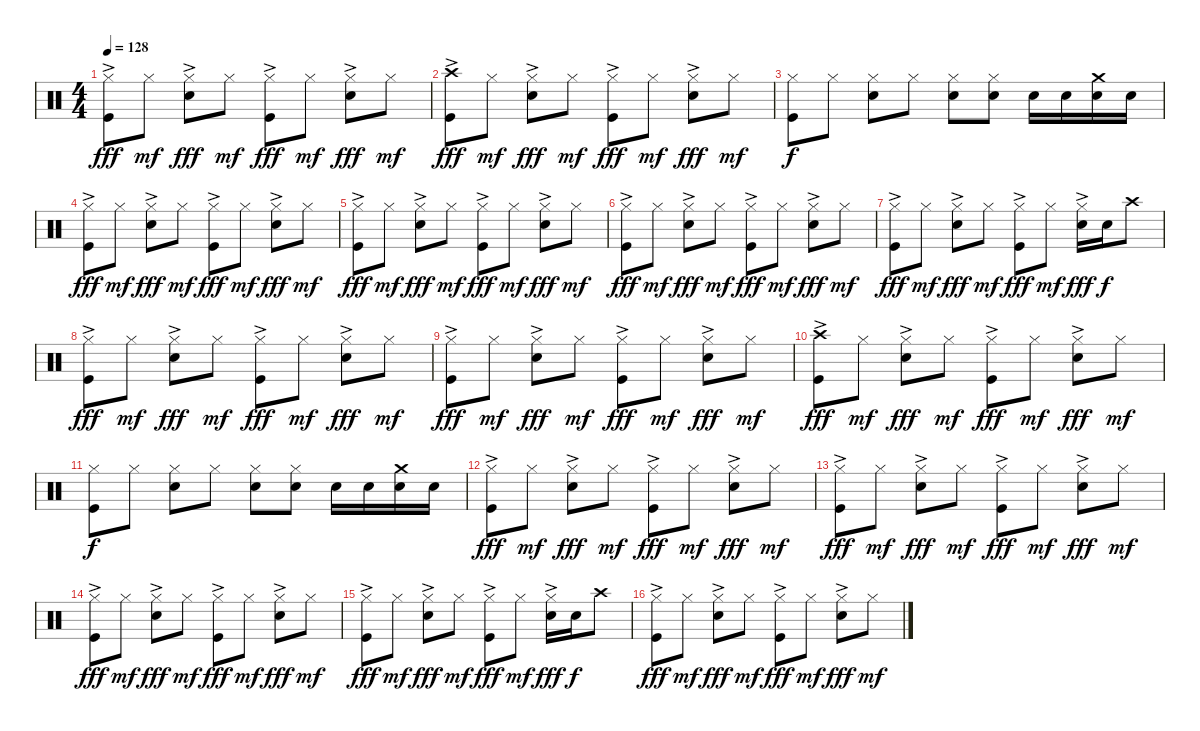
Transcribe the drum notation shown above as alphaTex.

\track "" {instrument percussion}
\staff {score}
\articulation defaults
\ts (4 4)
\tempo 128
\clef neutral
\ks c
("Hi-Hat (closed)"{ac} "Kick (hit)").8{dy fff} "Hi-Hat (closed)".8{dy mf} ("Hi-Hat (closed)"{ac} "Electric Snare (hit)").8{dy fff} "Hi-Hat (closed)".8{dy mf} ("Hi-Hat (closed)"{ac} "Kick (hit)").8{dy fff} "Hi-Hat (closed)".8{dy mf} ("Hi-Hat (closed)"{ac} "Electric Snare (hit)").8{dy fff} "Hi-Hat (closed)".8{dy mf} |
("Crash high (hit)"{ac} "Kick (hit)").8{dy fff} "Hi-Hat (closed)".8{dy mf} ("Hi-Hat (closed)"{ac} "Electric Snare (hit)").8{dy fff} "Hi-Hat (closed)".8{dy mf} ("Hi-Hat (closed)"{ac} "Kick (hit)").8{dy fff} "Hi-Hat (closed)".8{dy mf} ("Hi-Hat (closed)"{ac} "Electric Snare (hit)").8{dy fff} "Hi-Hat (closed)".8{dy mf} |
("Hi-Hat (closed)" "Kick (hit)").8{dy f} "Hi-Hat (closed)".8 ("Hi-Hat (closed)" "Electric Snare (hit)").8 "Hi-Hat (closed)".8 ("Hi-Hat (closed)" "Electric Snare (hit)").8 ("Hi-Hat (closed)" "Electric Snare (hit)").8 "Electric Snare (hit)".16 "Electric Snare (hit)".16 ("Crash medium (hit)" "Electric Snare (hit)").16 "Electric Snare (hit)".16 |
("Hi-Hat (closed)"{ac} "Kick (hit)").8{dy fff} "Hi-Hat (closed)".8{dy mf} ("Hi-Hat (closed)"{ac} "Electric Snare (hit)").8{dy fff} "Hi-Hat (closed)".8{dy mf} ("Hi-Hat (closed)"{ac} "Kick (hit)").8{dy fff} "Hi-Hat (closed)".8{dy mf} ("Hi-Hat (closed)"{ac} "Electric Snare (hit)").8{dy fff} "Hi-Hat (closed)".8{dy mf} |
("Hi-Hat (closed)"{ac} "Kick (hit)").8{dy fff} "Hi-Hat (closed)".8{dy mf} ("Hi-Hat (closed)"{ac} "Electric Snare (hit)").8{dy fff} "Hi-Hat (closed)".8{dy mf} ("Hi-Hat (closed)"{ac} "Kick (hit)").8{dy fff} "Hi-Hat (closed)".8{dy mf} ("Hi-Hat (closed)"{ac} "Electric Snare (hit)").8{dy fff} "Hi-Hat (closed)".8{dy mf} |
("Hi-Hat (closed)"{ac} "Kick (hit)").8{dy fff} "Hi-Hat (closed)".8{dy mf} ("Hi-Hat (closed)"{ac} "Electric Snare (hit)").8{dy fff} "Hi-Hat (closed)".8{dy mf} ("Hi-Hat (closed)"{ac} "Kick (hit)").8{dy fff} "Hi-Hat (closed)".8{dy mf} ("Hi-Hat (closed)"{ac} "Electric Snare (hit)").8{dy fff} "Hi-Hat (closed)".8{dy mf} |
("Hi-Hat (closed)"{ac} "Kick (hit)").8{dy fff} "Hi-Hat (closed)".8{dy mf} ("Hi-Hat (closed)"{ac} "Electric Snare (hit)").8{dy fff} "Hi-Hat (closed)".8{dy mf} ("Hi-Hat (closed)"{ac} "Kick (hit)").8{dy fff} "Hi-Hat (closed)".8{dy mf} ("Hi-Hat (closed)"{ac} "Electric Snare (hit)").16{dy fff} "Electric Snare (hit)".16{dy f} "Crash high (hit)".8 |
("Hi-Hat (closed)"{ac} "Kick (hit)").8{dy fff} "Hi-Hat (closed)".8{dy mf} ("Hi-Hat (closed)"{ac} "Electric Snare (hit)").8{dy fff} "Hi-Hat (closed)".8{dy mf} ("Hi-Hat (closed)"{ac} "Kick (hit)").8{dy fff} "Hi-Hat (closed)".8{dy mf} ("Hi-Hat (closed)"{ac} "Electric Snare (hit)").8{dy fff} "Hi-Hat (closed)".8{dy mf} |
("Hi-Hat (closed)"{ac} "Kick (hit)").8{dy fff} "Hi-Hat (closed)".8{dy mf} ("Hi-Hat (closed)"{ac} "Electric Snare (hit)").8{dy fff} "Hi-Hat (closed)".8{dy mf} ("Hi-Hat (closed)"{ac} "Kick (hit)").8{dy fff} "Hi-Hat (closed)".8{dy mf} ("Hi-Hat (closed)"{ac} "Electric Snare (hit)").8{dy fff} "Hi-Hat (closed)".8{dy mf} |
("Crash high (hit)"{ac} "Kick (hit)").8{dy fff} "Hi-Hat (closed)".8{dy mf} ("Hi-Hat (closed)"{ac} "Electric Snare (hit)").8{dy fff} "Hi-Hat (closed)".8{dy mf} ("Hi-Hat (closed)"{ac} "Kick (hit)").8{dy fff} "Hi-Hat (closed)".8{dy mf} ("Hi-Hat (closed)"{ac} "Electric Snare (hit)").8{dy fff} "Hi-Hat (closed)".8{dy mf} |
("Hi-Hat (closed)" "Kick (hit)").8{dy f} "Hi-Hat (closed)".8 ("Hi-Hat (closed)" "Electric Snare (hit)").8 "Hi-Hat (closed)".8 ("Hi-Hat (closed)" "Electric Snare (hit)").8 ("Hi-Hat (closed)" "Electric Snare (hit)").8 "Electric Snare (hit)".16 "Electric Snare (hit)".16 ("Crash medium (hit)" "Electric Snare (hit)").16 "Electric Snare (hit)".16 |
("Hi-Hat (closed)"{ac} "Kick (hit)").8{dy fff} "Hi-Hat (closed)".8{dy mf} ("Hi-Hat (closed)"{ac} "Electric Snare (hit)").8{dy fff} "Hi-Hat (closed)".8{dy mf} ("Hi-Hat (closed)"{ac} "Kick (hit)").8{dy fff} "Hi-Hat (closed)".8{dy mf} ("Hi-Hat (closed)"{ac} "Electric Snare (hit)").8{dy fff} "Hi-Hat (closed)".8{dy mf} |
("Hi-Hat (closed)"{ac} "Kick (hit)").8{dy fff} "Hi-Hat (closed)".8{dy mf} ("Hi-Hat (closed)"{ac} "Electric Snare (hit)").8{dy fff} "Hi-Hat (closed)".8{dy mf} ("Hi-Hat (closed)"{ac} "Kick (hit)").8{dy fff} "Hi-Hat (closed)".8{dy mf} ("Hi-Hat (closed)"{ac} "Electric Snare (hit)").8{dy fff} "Hi-Hat (closed)".8{dy mf} |
("Hi-Hat (closed)"{ac} "Kick (hit)").8{dy fff} "Hi-Hat (closed)".8{dy mf} ("Hi-Hat (closed)"{ac} "Electric Snare (hit)").8{dy fff} "Hi-Hat (closed)".8{dy mf} ("Hi-Hat (closed)"{ac} "Kick (hit)").8{dy fff} "Hi-Hat (closed)".8{dy mf} ("Hi-Hat (closed)"{ac} "Electric Snare (hit)").8{dy fff} "Hi-Hat (closed)".8{dy mf} |
("Hi-Hat (closed)"{ac} "Kick (hit)").8{dy fff} "Hi-Hat (closed)".8{dy mf} ("Hi-Hat (closed)"{ac} "Electric Snare (hit)").8{dy fff} "Hi-Hat (closed)".8{dy mf} ("Hi-Hat (closed)"{ac} "Kick (hit)").8{dy fff} "Hi-Hat (closed)".8{dy mf} ("Hi-Hat (closed)"{ac} "Electric Snare (hit)").16{dy fff} "Electric Snare (hit)".16{dy f} "Crash high (hit)".8 |
("Hi-Hat (closed)"{ac} "Kick (hit)").8{dy fff} "Hi-Hat (closed)".8{dy mf} ("Hi-Hat (closed)"{ac} "Electric Snare (hit)").8{dy fff} "Hi-Hat (closed)".8{dy mf} ("Hi-Hat (closed)"{ac} "Kick (hit)").8{dy fff} "Hi-Hat (closed)".8{dy mf} ("Hi-Hat (closed)"{ac} "Electric Snare (hit)").8{dy fff} "Hi-Hat (closed)".8{dy mf}
